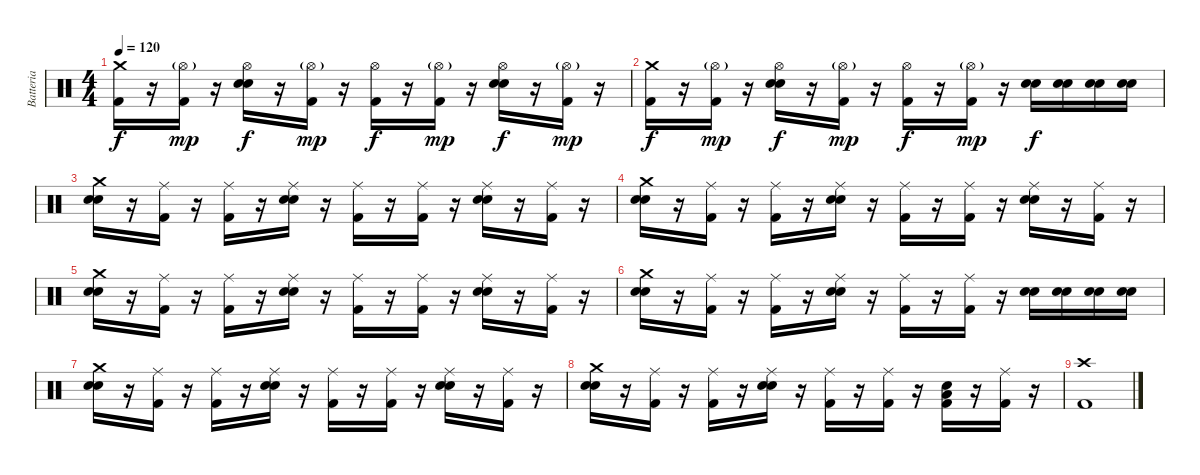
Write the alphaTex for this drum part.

\track ("Batteria" "Batteria") {instrument percussion}
\staff {score}
\articulation defaults
\ts (4 4)
\tempo 120
\clef neutral
\ks c
("Kick (hit) 2" "Crash medium (hit)").16{dy f} r.16 ("Kick (hit) 2" "Hi-Hat (open)"{g}).16{dy mp} r.16 ("Snare (hit) 2" "Snare (hit) 2" "Hi-Hat (open)").16{dy f} r.16 ("Kick (hit) 2" "Hi-Hat (open)"{g}).16{dy mp} r.16 ("Kick (hit) 2" "Hi-Hat (open)").16{dy f} r.16 ("Kick (hit) 2" "Hi-Hat (open)"{g}).16{dy mp} r.16 ("Snare (hit) 2" "Snare (hit) 2" "Hi-Hat (open)").16{dy f} r.16 ("Kick (hit) 2" "Hi-Hat (open)"{g}).16{dy mp} r.16 |
("Kick (hit) 2" "Crash medium (hit)").16{dy f} r.16 ("Kick (hit) 2" "Hi-Hat (open)"{g}).16{dy mp} r.16 ("Snare (hit) 2" "Snare (hit) 2" "Hi-Hat (open)").16{dy f} r.16 ("Kick (hit) 2" "Hi-Hat (open)"{g}).16{dy mp} r.16 ("Kick (hit) 2" "Hi-Hat (open)").16{dy f} r.16 ("Kick (hit) 2" "Hi-Hat (open)"{g}).16{dy mp} r.16 ("Snare (hit) 2" "Snare (hit) 2").16{dy f} ("Snare (hit) 2" "Snare (hit) 2").16 ("Snare (hit) 2" "Snare (hit) 2").16 ("Snare (hit) 2" "Snare (hit) 2").16 |
("Snare (hit) 2" "Snare (hit) 2" "Crash medium (hit)").16 r.16 ("Kick (hit) 2" "Ride (middle)").16 r.16 ("Kick (hit) 2" "Ride (middle)").16 r.16 ("Snare (hit) 2" "Snare (hit) 2" "Ride (middle)").16 r.16 ("Kick (hit) 2" "Ride (middle)").16 r.16 ("Kick (hit) 2" "Ride (middle)").16 r.16 ("Snare (hit) 2" "Snare (hit) 2" "Ride (middle)").16 r.16 ("Kick (hit) 2" "Ride (middle)").16 r.16 |
("Snare (hit) 2" "Snare (hit) 2" "Crash medium (hit)").16 r.16 ("Kick (hit) 2" "Ride (middle)").16 r.16 ("Kick (hit) 2" "Ride (middle)").16 r.16 ("Snare (hit) 2" "Snare (hit) 2" "Ride (middle)").16 r.16 ("Kick (hit) 2" "Ride (middle)").16 r.16 ("Kick (hit) 2" "Ride (middle)").16 r.16 ("Snare (hit) 2" "Snare (hit) 2" "Ride (middle)").16 r.16 ("Kick (hit) 2" "Ride (middle)").16 r.16 |
("Snare (hit) 2" "Snare (hit) 2" "Crash medium (hit)").16 r.16 ("Kick (hit) 2" "Ride (middle)").16 r.16 ("Kick (hit) 2" "Ride (middle)").16 r.16 ("Snare (hit) 2" "Snare (hit) 2" "Ride (middle)").16 r.16 ("Kick (hit) 2" "Ride (middle)").16 r.16 ("Kick (hit) 2" "Ride (middle)").16 r.16 ("Snare (hit) 2" "Snare (hit) 2" "Ride (middle)").16 r.16 ("Kick (hit) 2" "Ride (middle)").16 r.16 |
("Snare (hit) 2" "Snare (hit) 2" "Crash medium (hit)").16 r.16 ("Kick (hit) 2" "Ride (middle)").16 r.16 ("Kick (hit) 2" "Ride (middle)").16 r.16 ("Snare (hit) 2" "Snare (hit) 2" "Ride (middle)").16 r.16 ("Kick (hit) 2" "Ride (middle)").16 r.16 ("Kick (hit) 2" "Ride (middle)").16 r.16 ("Snare (hit) 2" "Snare (hit) 2").16 ("Snare (hit) 2" "Snare (hit) 2").16 ("Snare (hit) 2" "Snare (hit) 2").16 ("Snare (hit) 2" "Snare (hit) 2").16 |
("Snare (hit) 2" "Snare (hit) 2" "Crash medium (hit)").16 r.16 ("Kick (hit) 2" "Ride (middle)").16 r.16 ("Kick (hit) 2" "Ride (middle)").16 r.16 ("Snare (hit) 2" "Snare (hit) 2" "Ride (middle)").16 r.16 ("Kick (hit) 2" "Ride (middle)").16 r.16 ("Kick (hit) 2" "Ride (middle)").16 r.16 ("Snare (hit) 2" "Snare (hit) 2" "Ride (middle)").16 r.16 ("Kick (hit) 2" "Ride (middle)").16 r.16 |
("Snare (hit) 2" "Snare (hit) 2" "Crash medium (hit)").16 r.16 ("Kick (hit) 2" "Ride (middle)").16 r.16 ("Kick (hit) 2" "Ride (middle)").16 r.16 ("Snare (hit) 2" "Snare (hit) 2" "Ride (middle)").16 r.16 ("Kick (hit) 2" "Ride (middle)").16 r.16 ("Kick (hit) 2" "Ride (middle)").16 r.16 ("Kick (hit) 2" "Snare (hit) 2" "Low Floor Tom (hit)").16 r.16 ("Kick (hit) 2" "Ride (middle)").16 r.16 |
("Kick (hit) 2" "Crash high (hit)").1
